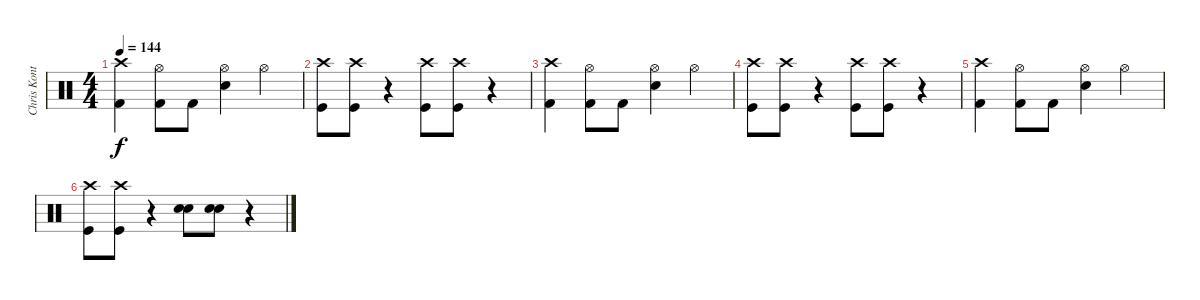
\track ("Chris Kontos" "Chris Kont") {instrument percussion}
\staff {score}
\articulation defaults
\ts (4 4)
\tempo 144
\clef neutral
\ks c
("Crash high (hit)" "Kick (hit) 2").4{dy f} ("Hi-Hat (open)" "Kick (hit) 2").8 "Kick (hit) 2".8 ("Hi-Hat (open)" "Electric Snare (hit)").4 "Hi-Hat (open)".4 |
("Crash high (hit)" "Kick (hit)").8 ("Crash high (hit)" "Kick (hit)").8 r.4 ("Crash high (hit)" "Kick (hit)").8 ("Crash high (hit)" "Kick (hit)").8 r.4 |
("Crash high (hit)" "Kick (hit) 2").4 ("Hi-Hat (open)" "Kick (hit) 2").8 "Kick (hit) 2".8 ("Hi-Hat (open)" "Electric Snare (hit)").4 "Hi-Hat (open)".4 |
("Crash high (hit)" "Kick (hit)").8 ("Crash high (hit)" "Kick (hit)").8 r.4 ("Crash high (hit)" "Kick (hit)").8 ("Crash high (hit)" "Kick (hit)").8 r.4 |
("Crash high (hit)" "Kick (hit) 2").4 ("Hi-Hat (open)" "Kick (hit) 2").8 "Kick (hit) 2".8 ("Hi-Hat (open)" "Electric Snare (hit)").4 "Hi-Hat (open)".4 |
("Crash high (hit)" "Kick (hit)").8 ("Crash high (hit)" "Kick (hit)").8 r.4 ("Electric Snare (hit)" "Electric Snare (hit)").8 ("Electric Snare (hit)" "Electric Snare (hit)").8 r.4
